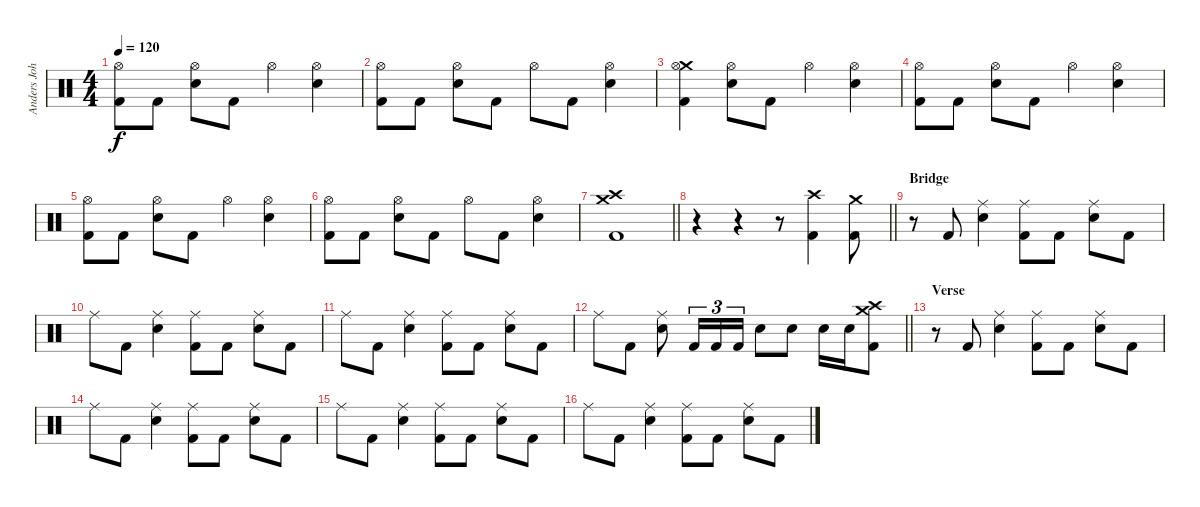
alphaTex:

\track ("Anders Johansson" "Anders Joh") {instrument percussion}
\staff {score}
\articulation defaults
\ts (4 4)
\tempo 120
\clef neutral
\ks c
("Hi-Hat (open)" "Kick (hit) 2").8{dy f} "Kick (hit) 2".8 ("Hi-Hat (open)" "Snare (hit) 2").8 "Kick (hit) 2".8 "Hi-Hat (open)".4 ("Hi-Hat (open)" "Snare (hit) 2").4 |
("Hi-Hat (open)" "Kick (hit) 2").8 "Kick (hit) 2".8 ("Hi-Hat (open)" "Snare (hit) 2").8 "Kick (hit) 2".8 "Hi-Hat (open)".8 "Kick (hit) 2".8 ("Hi-Hat (open)" "Snare (hit) 2").4 |
("Crash medium (hit)" "Hi-Hat (open)" "Kick (hit) 2").4 ("Hi-Hat (open)" "Snare (hit) 2").8 "Kick (hit) 2".8 "Hi-Hat (open)".4 ("Hi-Hat (open)" "Snare (hit) 2").4 |
("Hi-Hat (open)" "Kick (hit) 2").8 "Kick (hit) 2".8 ("Hi-Hat (open)" "Snare (hit) 2").8 "Kick (hit) 2".8 "Hi-Hat (open)".4 ("Hi-Hat (open)" "Snare (hit) 2").4 |
("Hi-Hat (open)" "Kick (hit) 2").8 "Kick (hit) 2".8 ("Hi-Hat (open)" "Snare (hit) 2").8 "Kick (hit) 2".8 "Hi-Hat (open)".4 ("Hi-Hat (open)" "Snare (hit) 2").4 |
("Hi-Hat (open)" "Kick (hit) 2").8 "Kick (hit) 2".8 ("Hi-Hat (open)" "Snare (hit) 2").8 "Kick (hit) 2".8 "Hi-Hat (open)".8 "Kick (hit) 2".8 ("Hi-Hat (open)" "Snare (hit) 2").4 |
\barLineRight lightlight
("Crash high (hit)" "Crash medium (hit)" "Kick (hit) 2").1 |
\barLineRight lightlight
r.4 r.4 r.8 ("Crash high (hit)" "Kick (hit) 2").4 ("Crash medium (hit)" "Kick (hit) 2").8 |
\section ("" "Bridge")
r.8 "Kick (hit) 2".8 ("Ride (middle)" "Snare (hit) 2").4 ("Ride (middle)" "Kick (hit) 2").8 "Kick (hit) 2".8 ("Ride (middle)" "Snare (hit) 2").8 "Kick (hit) 2".8 |
"Ride (middle)".8 "Kick (hit) 2".8 ("Ride (middle)" "Snare (hit) 2").4 ("Ride (middle)" "Kick (hit) 2").8 "Kick (hit) 2".8 ("Ride (middle)" "Snare (hit) 2").8 "Kick (hit) 2".8 |
"Ride (middle)".8 "Kick (hit) 2".8 ("Ride (middle)" "Snare (hit) 2").4 ("Ride (middle)" "Kick (hit) 2").8 "Kick (hit) 2".8 ("Ride (middle)" "Snare (hit) 2").8 "Kick (hit) 2".8 |
\barLineRight lightlight "Ride (middle)".8 "Kick (hit) 2".8
("Ride (middle)" "Snare (hit) 2").8 "Kick (hit) 2".16{tu (3 2)} "Kick (hit) 2".16{tu (3 2)} "Kick (hit) 2".16{tu (3 2)} "Snare (hit) 2".8 "Snare (hit) 2".8 "Snare (hit) 2".16 "Snare (hit) 2".16 ("Crash high (hit)" "Crash medium (hit)" "Kick (hit) 2").8 |
\section ("" "Verse")
r.8 "Kick (hit) 2".8 ("Ride (middle)" "Snare (hit) 2").4 ("Ride (middle)" "Kick (hit) 2").8 "Kick (hit) 2".8 ("Ride (middle)" "Snare (hit) 2").8 "Kick (hit) 2".8 |
"Ride (middle)".8 "Kick (hit) 2".8 ("Ride (middle)" "Snare (hit) 2").4 ("Ride (middle)" "Kick (hit) 2").8 "Kick (hit) 2".8 ("Ride (middle)" "Snare (hit) 2").8 "Kick (hit) 2".8 |
"Ride (middle)".8 "Kick (hit) 2".8 ("Ride (middle)" "Snare (hit) 2").4 ("Ride (middle)" "Kick (hit) 2").8 "Kick (hit) 2".8 ("Ride (middle)" "Snare (hit) 2").8 "Kick (hit) 2".8 |
"Ride (middle)".8 "Kick (hit) 2".8 ("Ride (middle)" "Snare (hit) 2").4 ("Ride (middle)" "Kick (hit) 2").8 "Kick (hit) 2".8 ("Ride (middle)" "Snare (hit) 2").8 "Kick (hit) 2".8
